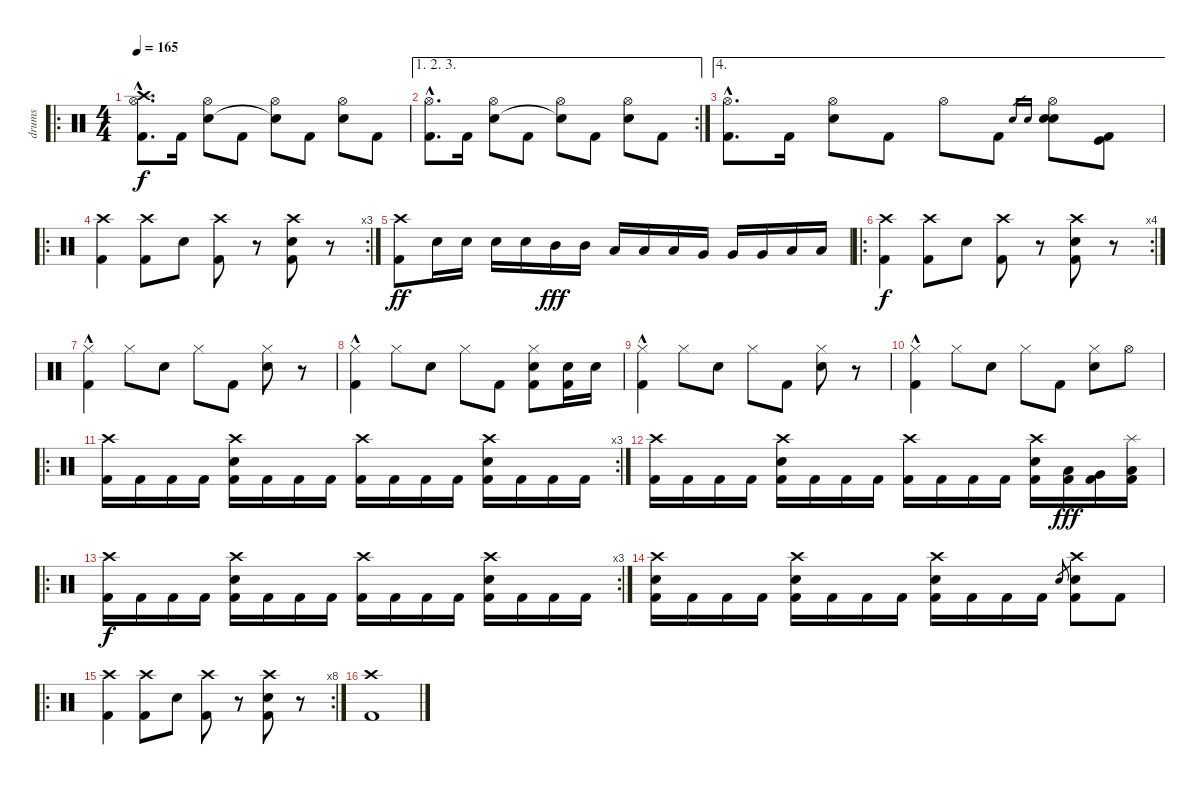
\track ("drums" "drums") {instrument percussion}
\staff {score}
\articulation defaults
\ro
\ts (4 4)
\tempo 165
\clef neutral
\ks c
("Crash high (hit)"{hac} "Hi-Hat (open)"{hac} "Kick (hit) 2"{hac}).8{d dy f} "Kick (hit) 2".16 ("Hi-Hat (open)" "Electric Snare (hit)").8 "Kick (hit) 2".8 ("Hi-Hat (open)" "Snare (hit)"{t}).8 "Kick (hit) 2".8 ("Hi-Hat (open)" "Electric Snare (hit)").8 "Kick (hit) 2".8 |
\ae (1 2 3)
\rc 2
("Hi-Hat (open)"{hac} "Kick (hit) 2"{hac}).8{d} "Kick (hit) 2".16 ("Hi-Hat (open)" "Electric Snare (hit)").8 "Kick (hit) 2".8 ("Hi-Hat (open)" "Snare (hit)"{t}).8 "Kick (hit) 2".8 ("Hi-Hat (open)" "Electric Snare (hit)").8 "Kick (hit) 2".8 |
\ae 4
("Hi-Hat (open)"{hac} "Kick (hit) 2"{hac}).8{d} "Kick (hit) 2".16 ("Hi-Hat (open)" "Electric Snare (hit)").8 "Kick (hit) 2".8 "Hi-Hat (open)".8 "Kick (hit) 2".8 "Snare (hit) 2".16{gr} "Electric Snare (hit)".16{gr} ("Hi-Hat (open)" "Snare (hit) 2" "Electric Snare (hit)").8 ("Kick (hit)" "Kick (hit) 2").8 |
\ro
\rc 3
("Crash high (hit)" "Kick (hit) 2").4 ("Crash high (hit)" "Kick (hit) 2").8 "Electric Snare (hit)".8 ("Crash high (hit)" "Kick (hit) 2").8 r.8 ("Crash high (hit)" "Electric Snare (hit)" "Kick (hit) 2").8 r.8 |
("Crash high (hit)" "Kick (hit) 2").8{dy ff} "Electric Snare (hit)".16 "Electric Snare (hit)".16 "Electric Snare (hit)".16 "Electric Snare (hit)".16 "Mid Tom (hit)".16{dy fff} "Mid Tom (hit)".16 "Low Tom (hit)".16 "Low Tom (hit)".16 "Low Tom (hit)".16 "Very Low Tom (hit)".16 "Very Low Tom (hit)".16 "Very Low Tom (hit)".16 "Low Floor Tom (hit)".16 "Low Floor Tom (hit)".16 |
\ro
\rc 4
("Crash high (hit)" "Kick (hit) 2").4{dy f} ("Crash high (hit)" "Kick (hit) 2").8 "Electric Snare (hit)".8 ("Crash high (hit)" "Kick (hit) 2").8 r.8 ("Crash high (hit)" "Electric Snare (hit)" "Kick (hit) 2").8 r.8 |
("Hi-Hat (closed)" "Kick (hit) 2"{hac}).4 "Hi-Hat (closed)".8 "Electric Snare (hit)".8 "Hi-Hat (closed)".8 "Kick (hit) 2".8 ("Hi-Hat (closed)" "Electric Snare (hit)").8 r.8 |
("Hi-Hat (closed)" "Kick (hit) 2"{hac}).4 "Hi-Hat (closed)".8 "Electric Snare (hit)".8 "Hi-Hat (closed)".8 "Kick (hit) 2".8 ("Hi-Hat (closed)" "Electric Snare (hit)" "Kick (hit) 2").8 ("Electric Snare (hit)" "Kick (hit) 2").16 "Electric Snare (hit)".16 |
("Hi-Hat (closed)" "Kick (hit) 2"{hac}).4 "Hi-Hat (closed)".8 "Electric Snare (hit)".8 "Hi-Hat (closed)".8 "Kick (hit) 2".8 ("Hi-Hat (closed)" "Electric Snare (hit)").8 r.8 |
("Hi-Hat (closed)" "Kick (hit) 2"{hac}).4 "Hi-Hat (closed)".8 "Electric Snare (hit)".8 "Hi-Hat (closed)".8 "Kick (hit) 2".8 ("Hi-Hat (closed)" "Electric Snare (hit)").8 "Hi-Hat (open)".8 |
\ro
\rc 3
("Crash high (hit)" "Kick (hit) 2").16 "Kick (hit) 2".16 "Kick (hit) 2".16 "Kick (hit) 2".16 ("Crash high (hit)" "Electric Snare (hit)" "Kick (hit) 2").16 "Kick (hit) 2".16 "Kick (hit) 2".16 "Kick (hit) 2".16 ("Crash high (hit)" "Kick (hit) 2").16 "Kick (hit) 2".16 "Kick (hit) 2".16 "Kick (hit) 2".16 ("Crash high (hit)" "Electric Snare (hit)" "Kick (hit) 2").16 "Kick (hit) 2".16 "Kick (hit) 2".16 "Kick (hit) 2".16 |
("Crash high (hit)" "Kick (hit) 2").16 "Kick (hit) 2".16 "Kick (hit) 2".16 "Kick (hit) 2".16 ("Crash high (hit)" "Electric Snare (hit)" "Kick (hit) 2").16 "Kick (hit) 2".16 "Kick (hit) 2".16 "Kick (hit) 2".16 ("Crash high (hit)" "Kick (hit) 2").16 "Kick (hit) 2".16 "Kick (hit) 2".16 "Kick (hit) 2".16 ("Crash high (hit)" "Electric Snare (hit)" "Kick (hit) 2").16 ("Low Tom (hit)" "Kick (hit) 2").16{dy fff} ("Very Low Tom (hit)" "Kick (hit) 2").16 ("Splash (hit)" "Low Floor Tom (hit)" "Kick (hit) 2").16 |
\ro
\rc 3
("Crash high (hit)" "Kick (hit) 2").16{dy f} "Kick (hit) 2".16 "Kick (hit) 2".16 "Kick (hit) 2".16 ("Crash high (hit)" "Electric Snare (hit)" "Kick (hit) 2").16 "Kick (hit) 2".16 "Kick (hit) 2".16 "Kick (hit) 2".16 ("Crash high (hit)" "Kick (hit) 2").16 "Kick (hit) 2".16 "Kick (hit) 2".16 "Kick (hit) 2".16 ("Crash high (hit)" "Electric Snare (hit)" "Kick (hit) 2").16 "Kick (hit) 2".16 "Kick (hit) 2".16 "Kick (hit) 2".16 |
("Crash high (hit)" "Electric Snare (hit)" "Kick (hit) 2").16 "Kick (hit) 2".16 "Kick (hit) 2".16 "Kick (hit) 2".16 ("Crash high (hit)" "Electric Snare (hit)" "Kick (hit) 2").16 "Kick (hit) 2".16 "Kick (hit) 2".16 "Kick (hit) 2".16 ("Crash high (hit)" "Electric Snare (hit)" "Kick (hit) 2").16 "Kick (hit) 2".16 "Kick (hit) 2".16 "Kick (hit) 2".16 "Electric Snare (hit)".8{gr} ("Crash high (hit)" "Electric Snare (hit)" "Kick (hit) 2").8 "Kick (hit) 2".8 |
\ro
\rc 8
("Crash high (hit)" "Kick (hit) 2").4 ("Crash high (hit)" "Kick (hit) 2").8 "Electric Snare (hit)".8 ("Crash high (hit)" "Kick (hit) 2").8 r.8 ("Crash high (hit)" "Electric Snare (hit)" "Kick (hit) 2").8 r.8 |
("Crash high (hit)" "Kick (hit) 2").1
